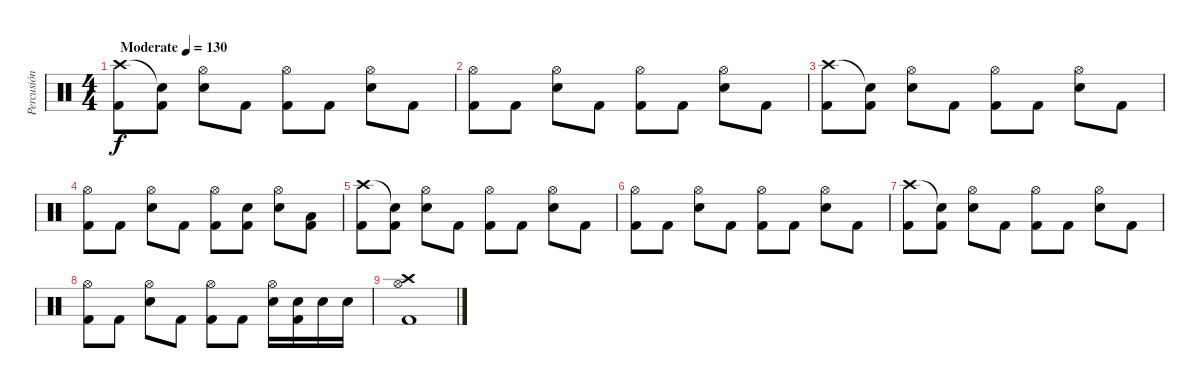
\track ("Percusión" "Percusión") {instrument percussion}
\staff {score}
\articulation defaults
\ts (4 4)
\tempo (130 "Moderate")
\clef neutral
\ks c
("Crash high (hit)" "Kick (hit) 2").8{dy f} ("Snare (hit)"{t} "Kick (hit) 2").8 ("Hi-Hat (open)" "Electric Snare (hit)").8 "Kick (hit) 2".8 ("Hi-Hat (open)" "Kick (hit) 2").8 "Kick (hit) 2".8 ("Hi-Hat (open)" "Electric Snare (hit)").8 "Kick (hit) 2".8 |
("Hi-Hat (open)" "Kick (hit) 2").8 "Kick (hit) 2".8 ("Hi-Hat (open)" "Electric Snare (hit)").8 "Kick (hit) 2".8 ("Hi-Hat (open)" "Kick (hit) 2").8 "Kick (hit) 2".8 ("Hi-Hat (open)" "Electric Snare (hit)").8 "Kick (hit) 2".8 |
("Crash high (hit)" "Kick (hit) 2").8 ("Snare (hit)"{t} "Kick (hit) 2").8 ("Hi-Hat (open)" "Electric Snare (hit)").8 "Kick (hit) 2".8 ("Hi-Hat (open)" "Kick (hit) 2").8 "Kick (hit) 2".8 ("Hi-Hat (open)" "Electric Snare (hit)").8 "Kick (hit) 2".8 |
("Hi-Hat (open)" "Kick (hit) 2").8 "Kick (hit) 2".8 ("Hi-Hat (open)" "Electric Snare (hit)").8 "Kick (hit) 2".8 ("Hi-Hat (open)" "Kick (hit) 2").8 ("Electric Snare (hit)" "Kick (hit) 2").8 ("Hi-Hat (open)" "Electric Snare (hit)").8 ("Low Floor Tom (hit)" "Kick (hit) 2").8 |
("Crash high (hit)" "Kick (hit) 2").8 ("Snare (hit)"{t} "Kick (hit) 2").8 ("Hi-Hat (open)" "Electric Snare (hit)").8 "Kick (hit) 2".8 ("Hi-Hat (open)" "Kick (hit) 2").8 "Kick (hit) 2".8 ("Hi-Hat (open)" "Electric Snare (hit)").8 "Kick (hit) 2".8 |
("Hi-Hat (open)" "Kick (hit) 2").8 "Kick (hit) 2".8 ("Hi-Hat (open)" "Electric Snare (hit)").8 "Kick (hit) 2".8 ("Hi-Hat (open)" "Kick (hit) 2").8 "Kick (hit) 2".8 ("Hi-Hat (open)" "Electric Snare (hit)").8 "Kick (hit) 2".8 |
("Crash high (hit)" "Kick (hit) 2").8 ("Snare (hit)"{t} "Kick (hit) 2").8 ("Hi-Hat (open)" "Electric Snare (hit)").8 "Kick (hit) 2".8 ("Hi-Hat (open)" "Kick (hit) 2").8 "Kick (hit) 2".8 ("Hi-Hat (open)" "Electric Snare (hit)").8 "Kick (hit) 2".8 |
("Hi-Hat (open)" "Kick (hit) 2").8 "Kick (hit) 2".8 ("Hi-Hat (open)" "Electric Snare (hit)").8 "Kick (hit) 2".8 ("Hi-Hat (open)" "Kick (hit) 2").8 "Kick (hit) 2".8 ("Hi-Hat (open)" "Electric Snare (hit)").16 ("Electric Snare (hit)" "Kick (hit) 2").16 "Electric Snare (hit)".16 "Electric Snare (hit)".16 |
("Crash high (hit)" "Hi-Hat (open)" "Kick (hit) 2").1
